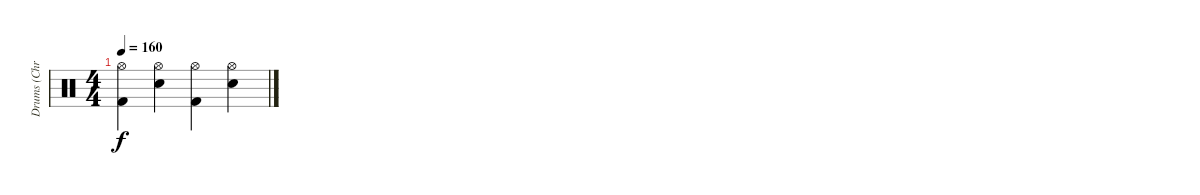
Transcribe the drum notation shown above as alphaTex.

\track ("Drums (Chris Efthimiadis)" "Drums (Chr") {instrument percussion}
\staff {score}
\articulation defaults
\ts (4 4)
\tempo 160
\clef neutral
\ks c
("Hi-Hat (open)" "Kick (hit) 2").4{dy f} ("Hi-Hat (open)" "Snare (hit) 2").4 ("Hi-Hat (open)" "Kick (hit) 2").4 ("Hi-Hat (open)" "Snare (hit) 2").4
